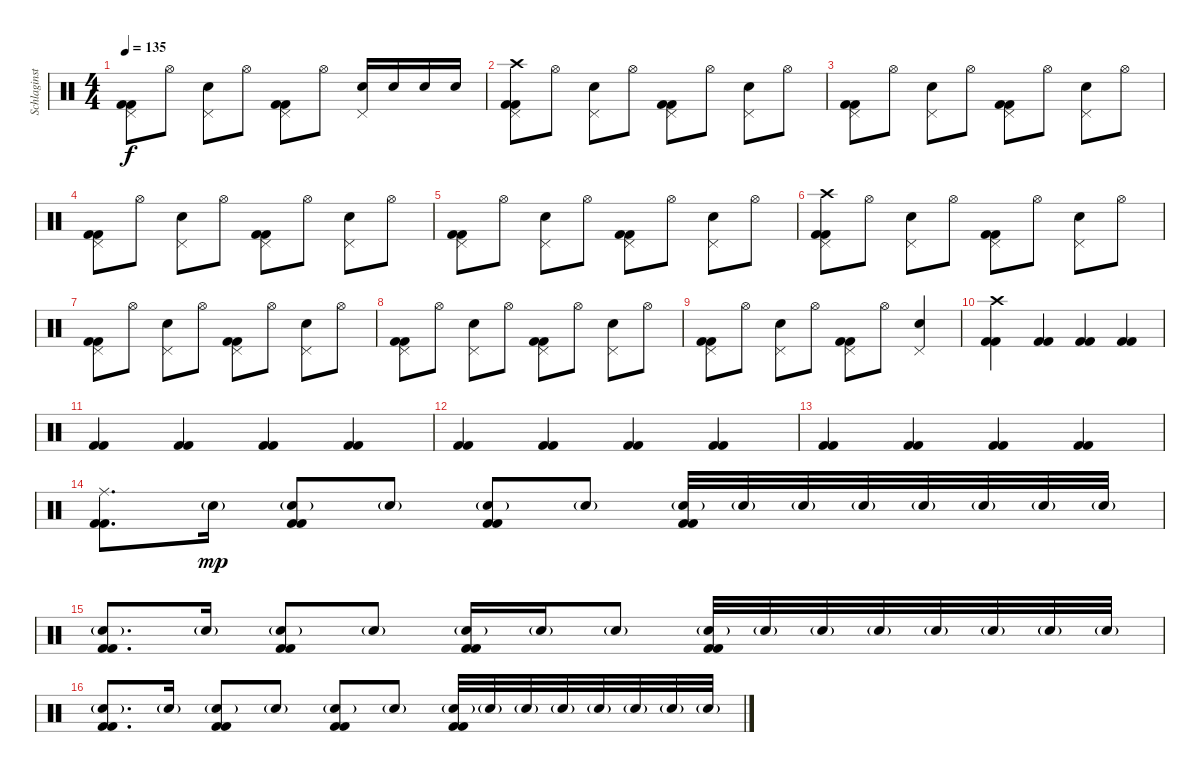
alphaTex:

\track ("Schlaginstrumente - Auswahl" "Schlaginst") {instrument percussion}
\staff {score}
\articulation defaults
\ts (4 4)
\tempo 135
\clef neutral
\ks c
("Kick (hit) 2" "Kick (hit) 2" "Pedal Hi-Hat (hit)").8{dy f} "Hi-Hat (open)".8 ("Snare (hit) 2" "Pedal Hi-Hat (hit)").8 "Hi-Hat (open)".8 ("Kick (hit) 2" "Kick (hit) 2" "Pedal Hi-Hat (hit)").8 "Hi-Hat (open)".8 ("Snare (hit) 2" "Pedal Hi-Hat (hit)").16 "Snare (hit) 2".16 "Snare (hit) 2".16 "Snare (hit) 2".16 |
("Crash high (hit)" "Kick (hit) 2" "Kick (hit) 2" "Pedal Hi-Hat (hit)").8 "Hi-Hat (open)".8 ("Snare (hit) 2" "Pedal Hi-Hat (hit)").8 "Hi-Hat (open)".8 ("Kick (hit) 2" "Kick (hit) 2" "Pedal Hi-Hat (hit)").8 "Hi-Hat (open)".8 ("Snare (hit) 2" "Pedal Hi-Hat (hit)").8 "Hi-Hat (open)".8 |
("Kick (hit) 2" "Kick (hit) 2" "Pedal Hi-Hat (hit)").8 "Hi-Hat (open)".8 ("Snare (hit) 2" "Pedal Hi-Hat (hit)").8 "Hi-Hat (open)".8 ("Kick (hit) 2" "Kick (hit) 2" "Pedal Hi-Hat (hit)").8 "Hi-Hat (open)".8 ("Snare (hit) 2" "Pedal Hi-Hat (hit)").8 "Hi-Hat (open)".8 |
("Kick (hit) 2" "Kick (hit) 2" "Pedal Hi-Hat (hit)").8 "Hi-Hat (open)".8 ("Snare (hit) 2" "Pedal Hi-Hat (hit)").8 "Hi-Hat (open)".8 ("Kick (hit) 2" "Kick (hit) 2" "Pedal Hi-Hat (hit)").8 "Hi-Hat (open)".8 ("Snare (hit) 2" "Pedal Hi-Hat (hit)").8 "Hi-Hat (open)".8 |
("Kick (hit) 2" "Kick (hit) 2" "Pedal Hi-Hat (hit)").8 "Hi-Hat (open)".8 ("Snare (hit) 2" "Pedal Hi-Hat (hit)").8 "Hi-Hat (open)".8 ("Kick (hit) 2" "Kick (hit) 2" "Pedal Hi-Hat (hit)").8 "Hi-Hat (open)".8 ("Snare (hit) 2" "Pedal Hi-Hat (hit)").8 "Hi-Hat (open)".8 |
("Crash high (hit)" "Kick (hit) 2" "Kick (hit) 2" "Pedal Hi-Hat (hit)").8 "Hi-Hat (open)".8 ("Snare (hit) 2" "Pedal Hi-Hat (hit)").8 "Hi-Hat (open)".8 ("Kick (hit) 2" "Kick (hit) 2" "Pedal Hi-Hat (hit)").8 "Hi-Hat (open)".8 ("Snare (hit) 2" "Pedal Hi-Hat (hit)").8 "Hi-Hat (open)".8 |
("Kick (hit) 2" "Kick (hit) 2" "Pedal Hi-Hat (hit)").8 "Hi-Hat (open)".8 ("Snare (hit) 2" "Pedal Hi-Hat (hit)").8 "Hi-Hat (open)".8 ("Kick (hit) 2" "Kick (hit) 2" "Pedal Hi-Hat (hit)").8 "Hi-Hat (open)".8 ("Snare (hit) 2" "Pedal Hi-Hat (hit)").8 "Hi-Hat (open)".8 |
("Kick (hit) 2" "Kick (hit) 2" "Pedal Hi-Hat (hit)").8 "Hi-Hat (open)".8 ("Snare (hit) 2" "Pedal Hi-Hat (hit)").8 "Hi-Hat (open)".8 ("Kick (hit) 2" "Kick (hit) 2" "Pedal Hi-Hat (hit)").8 "Hi-Hat (open)".8 ("Snare (hit) 2" "Pedal Hi-Hat (hit)").8 "Hi-Hat (open)".8 |
("Kick (hit) 2" "Kick (hit) 2" "Pedal Hi-Hat (hit)").8 "Hi-Hat (open)".8 ("Snare (hit) 2" "Pedal Hi-Hat (hit)").8 "Hi-Hat (open)".8 ("Kick (hit) 2" "Kick (hit) 2" "Pedal Hi-Hat (hit)").8 "Hi-Hat (open)".8 ("Snare (hit) 2" "Pedal Hi-Hat (hit)").4 |
("Crash high (hit)" "Kick (hit) 2" "Kick (hit) 2").4 ("Kick (hit) 2" "Kick (hit) 2").4 ("Kick (hit) 2" "Kick (hit) 2").4 ("Kick (hit) 2" "Kick (hit) 2").4 |
("Kick (hit) 2" "Kick (hit) 2").4 ("Kick (hit) 2" "Kick (hit) 2").4 ("Kick (hit) 2" "Kick (hit) 2").4 ("Kick (hit) 2" "Kick (hit) 2").4 |
("Kick (hit) 2" "Kick (hit) 2").4 ("Kick (hit) 2" "Kick (hit) 2").4 ("Kick (hit) 2" "Kick (hit) 2").4 ("Kick (hit) 2" "Kick (hit) 2").4 |
("Kick (hit) 2" "Kick (hit) 2").4 ("Kick (hit) 2" "Kick (hit) 2").4 ("Kick (hit) 2" "Kick (hit) 2").4 ("Kick (hit) 2" "Kick (hit) 2").4 |
("Ride (middle)" "Kick (hit) 2" "Kick (hit) 2").8{d} "Snare (hit) 2"{g}.16{dy mp} ("Snare (hit) 2"{g} "Kick (hit) 2" "Kick (hit) 2").8 "Snare (hit) 2"{g}.8 ("Snare (hit) 2"{g} "Kick (hit) 2" "Kick (hit) 2").8 "Snare (hit) 2"{g}.8 ("Snare (hit) 2"{g} "Kick (hit) 2" "Kick (hit) 2").32 "Snare (hit) 2"{g}.32 "Snare (hit) 2"{g}.32 "Snare (hit) 2"{g}.32 "Snare (hit) 2"{g}.32 "Snare (hit) 2"{g}.32 "Snare (hit) 2"{g}.32 "Snare (hit) 2"{g}.32 |
("Snare (hit) 2"{g} "Kick (hit) 2" "Kick (hit) 2").8{d} "Snare (hit) 2"{g}.16 ("Snare (hit) 2"{g} "Kick (hit) 2" "Kick (hit) 2").8 "Snare (hit) 2"{g}.8 ("Snare (hit) 2"{g} "Kick (hit) 2" "Kick (hit) 2").16 "Snare (hit) 2"{g}.16 "Snare (hit) 2"{g}.8 ("Snare (hit) 2"{g} "Kick (hit) 2" "Kick (hit) 2").32 "Snare (hit) 2"{g}.32 "Snare (hit) 2"{g}.32 "Snare (hit) 2"{g}.32 "Snare (hit) 2"{g}.32 "Snare (hit) 2"{g}.32 "Snare (hit) 2"{g}.32 "Snare (hit) 2"{g}.32 |
("Snare (hit) 2"{g} "Kick (hit) 2" "Kick (hit) 2").8{d} "Snare (hit) 2"{g}.16 ("Snare (hit) 2"{g} "Kick (hit) 2" "Kick (hit) 2").8 "Snare (hit) 2"{g}.8 ("Snare (hit) 2"{g} "Kick (hit) 2" "Kick (hit) 2").8 "Snare (hit) 2"{g}.8 ("Snare (hit) 2"{g} "Kick (hit) 2" "Kick (hit) 2").32 "Snare (hit) 2"{g}.32 "Snare (hit) 2"{g}.32 "Snare (hit) 2"{g}.32 "Snare (hit) 2"{g}.32 "Snare (hit) 2"{g}.32 "Snare (hit) 2"{g}.32 "Snare (hit) 2"{g}.32
